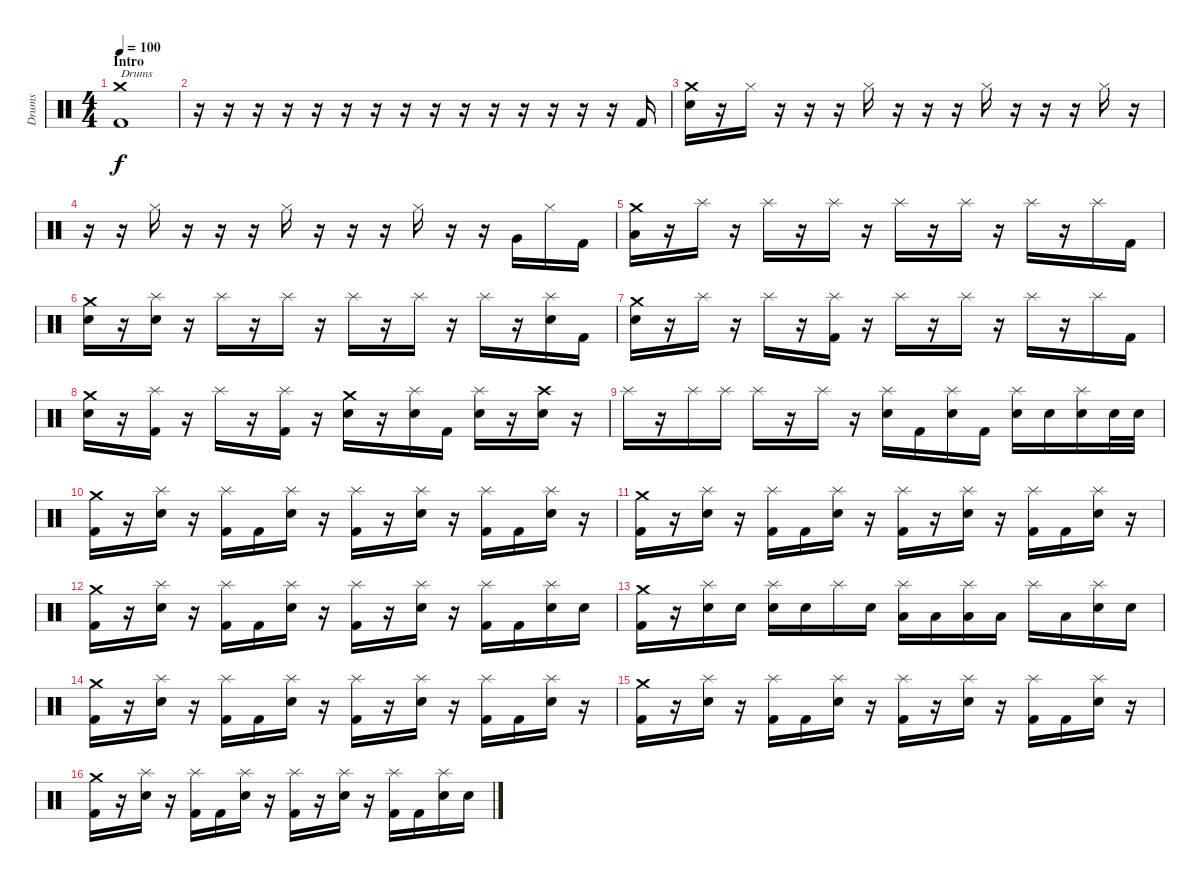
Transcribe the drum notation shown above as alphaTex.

\track ("Drums" "Drums") {instrument percussion}
\staff {score}
\articulation defaults
\ts (4 4)
\section ("" "Intro")
\tempo 100
\clef neutral
\ks c
("Crash medium (hit)" "Kick (hit) 2").1{txt "Drums" dy f} |
r.16 r.16 r.16 r.16 r.16 r.16 r.16 r.16 r.16 r.16 r.16 r.16 r.16 r.16 r.16 "Kick (hit) 2".16 |
("Crash medium (hit)" "Snare (hit) 2").16 r.16 "Hi-Hat (closed)".16 r.16 r.16 r.16 "Hi-Hat (closed)".16 r.16 r.16 r.16 "Hi-Hat (closed)".16 r.16 r.16 r.16 "Hi-Hat (closed)".16 r.16 |
r.16 r.16 "Hi-Hat (closed)".16 r.16 r.16 r.16 "Hi-Hat (closed)".16 r.16 r.16 r.16 "Hi-Hat (closed)".16 r.16 r.16 "Very Low Tom (hit)".16 "Hi-Hat (closed)".16 "Kick (hit) 2".16 |
("Crash medium (hit)" "Low Tom (hit)").16 r.16 "Splash (hit)".16 r.16 "Splash (hit)".16 r.16 "Splash (hit)".16 r.16 "Splash (hit)".16 r.16 "Splash (hit)".16 r.16 "Splash (hit)".16 r.16 "Splash (hit)".16 "Kick (hit) 2".16 |
("Crash medium (hit)" "Snare (hit) 2").16 r.16 ("Splash (hit)" "Snare (hit) 2").16 r.16 "Splash (hit)".16 r.16 "Splash (hit)".16 r.16 "Splash (hit)".16 r.16 "Splash (hit)".16 r.16 "Splash (hit)".16 r.16 ("Splash (hit)" "Snare (hit) 2").16 "Kick (hit) 2".16 |
("Crash medium (hit)" "Snare (hit) 2").16 r.16 "Splash (hit)".16 r.16 "Splash (hit)".16 r.16 ("Splash (hit)" "Kick (hit) 2").16 r.16 "Splash (hit)".16 r.16 "Splash (hit)".16 r.16 "Splash (hit)".16 r.16 "Splash (hit)".16 "Kick (hit) 2".16 |
("Crash medium (hit)" "Snare (hit) 2").16 r.16 ("Splash (hit)" "Kick (hit) 2").16 r.16 "Splash (hit)".16 r.16 ("Splash (hit)" "Kick (hit) 2").16 r.16 ("Crash medium (hit)" "Snare (hit) 2").16 r.16 ("Splash (hit)" "Snare (hit) 2").16 "Kick (hit) 2".16 ("Splash (hit)" "Snare (hit) 2").16 r.16 ("Crash high (hit)" "Snare (hit) 2").16 r.16 |
"Splash (hit)".16 r.16 "Splash (hit)".16 "Splash (hit)".16 "Splash (hit)".16 r.16 "Splash (hit)".16 r.16 ("Splash (hit)" "Snare (hit) 2").16 "Kick (hit) 2".16 ("Splash (hit)" "Snare (hit) 2").16 "Kick (hit) 2".16 ("Splash (hit)" "Snare (hit) 2").16 "Snare (hit) 2".16 ("Splash (hit)" "Snare (hit) 2").16 "Snare (hit) 2".32 "Snare (hit) 2".32 |
("Crash medium (hit)" "Kick (hit) 2").16 r.16 ("Splash (hit)" "Snare (hit) 2").16 r.16 ("Splash (hit)" "Kick (hit) 2").16 "Kick (hit) 2".16 ("Splash (hit)" "Snare (hit) 2").16 r.16 ("Splash (hit)" "Kick (hit) 2").16 r.16 ("Splash (hit)" "Snare (hit) 2").16 r.16 ("Splash (hit)" "Kick (hit) 2").16 "Kick (hit) 2".16 ("Splash (hit)" "Snare (hit) 2").16 r.16 |
("Crash medium (hit)" "Kick (hit) 2").16 r.16 ("Splash (hit)" "Snare (hit) 2").16 r.16 ("Splash (hit)" "Kick (hit) 2").16 "Kick (hit) 2".16 ("Splash (hit)" "Snare (hit) 2").16 r.16 ("Splash (hit)" "Kick (hit) 2").16 r.16 ("Splash (hit)" "Snare (hit) 2").16 r.16 ("Splash (hit)" "Kick (hit) 2").16 "Kick (hit) 2".16 ("Splash (hit)" "Snare (hit) 2").16 r.16 |
("Crash medium (hit)" "Kick (hit) 2").16 r.16 ("Splash (hit)" "Snare (hit) 2").16 r.16 ("Splash (hit)" "Kick (hit) 2").16 "Kick (hit) 2".16 ("Splash (hit)" "Snare (hit) 2").16 r.16 ("Splash (hit)" "Kick (hit) 2").16 r.16 ("Splash (hit)" "Snare (hit) 2").16 r.16 ("Splash (hit)" "Kick (hit) 2").16 "Kick (hit) 2".16 ("Splash (hit)" "Snare (hit) 2").16 "Snare (hit) 2".16 |
("Crash medium (hit)" "Kick (hit) 2").16 r.16 ("Splash (hit)" "Snare (hit) 2").16 "Snare (hit) 2".16 ("Splash (hit)" "Snare (hit) 2").16 "Snare (hit) 2".16 "Splash (hit)".16 "Snare (hit) 2".16 ("Splash (hit)" "Low Tom (hit)").16 "Low Tom (hit)".16 ("Splash (hit)" "Low Tom (hit)").16 "Low Tom (hit)".16 "Splash (hit)".16 "Low Tom (hit)".16 ("Splash (hit)" "Snare (hit) 2").16 "Snare (hit) 2".16 |
("Crash medium (hit)" "Kick (hit) 2").16 r.16 ("Splash (hit)" "Snare (hit) 2").16 r.16 ("Splash (hit)" "Kick (hit) 2").16 "Kick (hit) 2".16 ("Splash (hit)" "Snare (hit) 2").16 r.16 ("Splash (hit)" "Kick (hit) 2").16 r.16 ("Splash (hit)" "Snare (hit) 2").16 r.16 ("Splash (hit)" "Kick (hit) 2").16 "Kick (hit) 2".16 ("Splash (hit)" "Snare (hit) 2").16 r.16 |
("Crash medium (hit)" "Kick (hit) 2").16 r.16 ("Splash (hit)" "Snare (hit) 2").16 r.16 ("Splash (hit)" "Kick (hit) 2").16 "Kick (hit) 2".16 ("Splash (hit)" "Snare (hit) 2").16 r.16 ("Splash (hit)" "Kick (hit) 2").16 r.16 ("Splash (hit)" "Snare (hit) 2").16 r.16 ("Splash (hit)" "Kick (hit) 2").16 "Kick (hit) 2".16 ("Splash (hit)" "Snare (hit) 2").16 r.16 |
("Crash medium (hit)" "Kick (hit) 2").16 r.16 ("Splash (hit)" "Snare (hit) 2").16 r.16 ("Splash (hit)" "Kick (hit) 2").16 "Kick (hit) 2".16 ("Splash (hit)" "Snare (hit) 2").16 r.16 ("Splash (hit)" "Kick (hit) 2").16 r.16 ("Splash (hit)" "Snare (hit) 2").16 r.16 ("Splash (hit)" "Kick (hit) 2").16 "Kick (hit) 2".16 ("Splash (hit)" "Snare (hit) 2").16 "Snare (hit) 2".16
